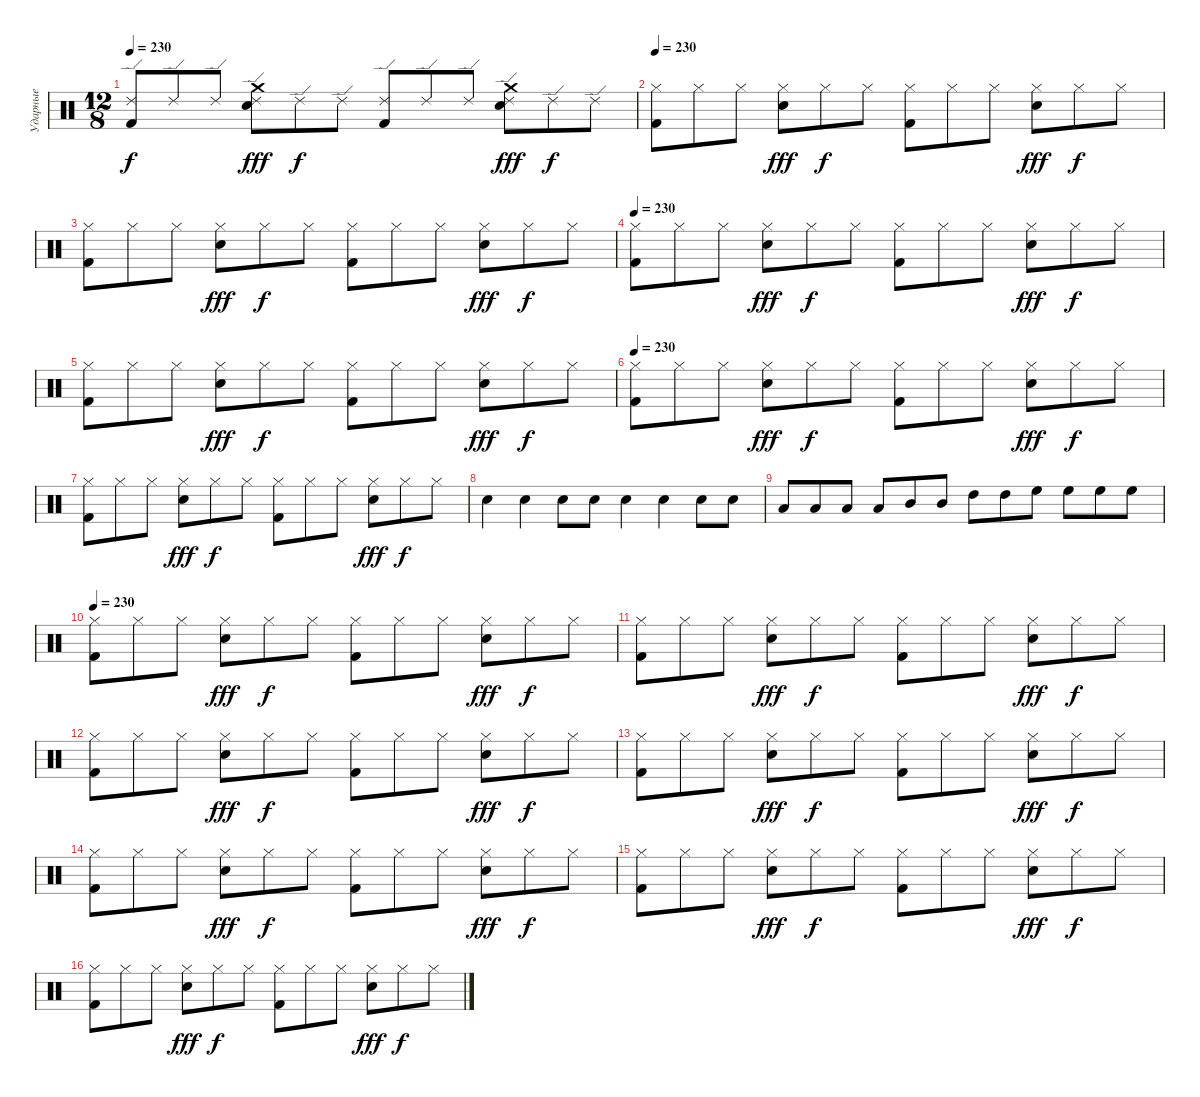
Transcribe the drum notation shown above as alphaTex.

\track ("Ударные" "Ударные") {instrument percussion}
\staff {score}
\articulation defaults
\ts (12 8)
\tempo 230
\clef neutral
\ks c
("Ride (edge) 2" "Kick (hit) 2").8{dy f} "Ride (edge) 2".8 "Ride (edge) 2".8 ("Ride (edge) 2" "Snare (hit) 2" "Crash medium (hit)").8{dy fff} "Ride (edge) 2".8{dy f} "Ride (edge) 2".8 ("Ride (edge) 2" "Kick (hit) 2").8 "Ride (edge) 2".8 "Ride (edge) 2".8 ("Ride (edge) 2" "Snare (hit) 2" "Crash medium (hit)").8{dy fff} "Ride (edge) 2".8{dy f} "Ride (edge) 2".8 |
\tempo 230
("Hi-Hat (closed)" "Kick (hit) 2").8 "Hi-Hat (closed)".8 "Hi-Hat (closed)".8 ("Hi-Hat (closed)" "Snare (hit) 2").8{dy fff} "Hi-Hat (closed)".8{dy f} "Hi-Hat (closed)".8 ("Hi-Hat (closed)" "Kick (hit) 2").8 "Hi-Hat (closed)".8 "Hi-Hat (closed)".8 ("Hi-Hat (closed)" "Snare (hit) 2").8{dy fff} "Hi-Hat (closed)".8{dy f} "Hi-Hat (closed)".8 |
("Hi-Hat (closed)" "Kick (hit) 2").8 "Hi-Hat (closed)".8 "Hi-Hat (closed)".8 ("Hi-Hat (closed)" "Snare (hit) 2").8{dy fff} "Hi-Hat (closed)".8{dy f} "Hi-Hat (closed)".8 ("Hi-Hat (closed)" "Kick (hit) 2").8 "Hi-Hat (closed)".8 "Hi-Hat (closed)".8 ("Hi-Hat (closed)" "Snare (hit) 2").8{dy fff} "Hi-Hat (closed)".8{dy f} "Hi-Hat (closed)".8 |
\tempo 230
("Hi-Hat (closed)" "Kick (hit) 2").8 "Hi-Hat (closed)".8 "Hi-Hat (closed)".8 ("Hi-Hat (closed)" "Snare (hit) 2").8{dy fff} "Hi-Hat (closed)".8{dy f} "Hi-Hat (closed)".8 ("Hi-Hat (closed)" "Kick (hit) 2").8 "Hi-Hat (closed)".8 "Hi-Hat (closed)".8 ("Hi-Hat (closed)" "Snare (hit) 2").8{dy fff} "Hi-Hat (closed)".8{dy f} "Hi-Hat (closed)".8 |
("Hi-Hat (closed)" "Kick (hit) 2").8 "Hi-Hat (closed)".8 "Hi-Hat (closed)".8 ("Hi-Hat (closed)" "Snare (hit) 2").8{dy fff} "Hi-Hat (closed)".8{dy f} "Hi-Hat (closed)".8 ("Hi-Hat (closed)" "Kick (hit) 2").8 "Hi-Hat (closed)".8 "Hi-Hat (closed)".8 ("Hi-Hat (closed)" "Snare (hit) 2").8{dy fff} "Hi-Hat (closed)".8{dy f} "Hi-Hat (closed)".8 |
\tempo 230
("Hi-Hat (closed)" "Kick (hit) 2").8 "Hi-Hat (closed)".8 "Hi-Hat (closed)".8 ("Hi-Hat (closed)" "Snare (hit) 2").8{dy fff} "Hi-Hat (closed)".8{dy f} "Hi-Hat (closed)".8 ("Hi-Hat (closed)" "Kick (hit) 2").8 "Hi-Hat (closed)".8 "Hi-Hat (closed)".8 ("Hi-Hat (closed)" "Snare (hit) 2").8{dy fff} "Hi-Hat (closed)".8{dy f} "Hi-Hat (closed)".8 |
("Hi-Hat (closed)" "Kick (hit) 2").8 "Hi-Hat (closed)".8 "Hi-Hat (closed)".8 ("Hi-Hat (closed)" "Snare (hit) 2").8{dy fff} "Hi-Hat (closed)".8{dy f} "Hi-Hat (closed)".8 ("Hi-Hat (closed)" "Kick (hit) 2").8 "Hi-Hat (closed)".8 "Hi-Hat (closed)".8 ("Hi-Hat (closed)" "Snare (hit) 2").8{dy fff} "Hi-Hat (closed)".8{dy f} "Hi-Hat (closed)".8 |
"Snare (hit) 2".4 "Snare (hit) 2".4 "Snare (hit) 2".8 "Snare (hit) 2".8 "Snare (hit) 2".4 "Snare (hit) 2".4 "Snare (hit) 2".8 "Snare (hit) 2".8 |
"Low Floor Tom (hit)".8 "Low Floor Tom (hit)".8 "Low Tom (hit)".8 "Low Tom (hit)".8 "Mid Tom (hit)".8 "Mid Tom (hit)".8 "High Tom (hit)".8 "High Tom (hit)".8 "High Floor Tom (hit)".8 "High Floor Tom (hit)".8 "High Floor Tom (hit)".8 "High Floor Tom (hit)".8 |
\tempo 230
("Hi-Hat (closed)" "Kick (hit) 2").8 "Hi-Hat (closed)".8 "Hi-Hat (closed)".8 ("Hi-Hat (closed)" "Snare (hit) 2").8{dy fff} "Hi-Hat (closed)".8{dy f} "Hi-Hat (closed)".8 ("Hi-Hat (closed)" "Kick (hit) 2").8 "Hi-Hat (closed)".8 "Hi-Hat (closed)".8 ("Hi-Hat (closed)" "Snare (hit) 2").8{dy fff} "Hi-Hat (closed)".8{dy f} "Hi-Hat (closed)".8 |
("Hi-Hat (closed)" "Kick (hit) 2").8 "Hi-Hat (closed)".8 "Hi-Hat (closed)".8 ("Hi-Hat (closed)" "Snare (hit) 2").8{dy fff} "Hi-Hat (closed)".8{dy f} "Hi-Hat (closed)".8 ("Hi-Hat (closed)" "Kick (hit) 2").8 "Hi-Hat (closed)".8 "Hi-Hat (closed)".8 ("Hi-Hat (closed)" "Snare (hit) 2").8{dy fff} "Hi-Hat (closed)".8{dy f} "Hi-Hat (closed)".8 |
("Hi-Hat (closed)" "Kick (hit) 2").8 "Hi-Hat (closed)".8 "Hi-Hat (closed)".8 ("Hi-Hat (closed)" "Snare (hit) 2").8{dy fff} "Hi-Hat (closed)".8{dy f} "Hi-Hat (closed)".8 ("Hi-Hat (closed)" "Kick (hit) 2").8 "Hi-Hat (closed)".8 "Hi-Hat (closed)".8 ("Hi-Hat (closed)" "Snare (hit) 2").8{dy fff} "Hi-Hat (closed)".8{dy f} "Hi-Hat (closed)".8 |
("Hi-Hat (closed)" "Kick (hit) 2").8 "Hi-Hat (closed)".8 "Hi-Hat (closed)".8 ("Hi-Hat (closed)" "Snare (hit) 2").8{dy fff} "Hi-Hat (closed)".8{dy f} "Hi-Hat (closed)".8 ("Hi-Hat (closed)" "Kick (hit) 2").8 "Hi-Hat (closed)".8 "Hi-Hat (closed)".8 ("Hi-Hat (closed)" "Snare (hit) 2").8{dy fff} "Hi-Hat (closed)".8{dy f} "Hi-Hat (closed)".8 |
("Hi-Hat (closed)" "Kick (hit) 2").8 "Hi-Hat (closed)".8 "Hi-Hat (closed)".8 ("Hi-Hat (closed)" "Snare (hit) 2").8{dy fff} "Hi-Hat (closed)".8{dy f} "Hi-Hat (closed)".8 ("Hi-Hat (closed)" "Kick (hit) 2").8 "Hi-Hat (closed)".8 "Hi-Hat (closed)".8 ("Hi-Hat (closed)" "Snare (hit) 2").8{dy fff} "Hi-Hat (closed)".8{dy f} "Hi-Hat (closed)".8 |
("Hi-Hat (closed)" "Kick (hit) 2").8 "Hi-Hat (closed)".8 "Hi-Hat (closed)".8 ("Hi-Hat (closed)" "Snare (hit) 2").8{dy fff} "Hi-Hat (closed)".8{dy f} "Hi-Hat (closed)".8 ("Hi-Hat (closed)" "Kick (hit) 2").8 "Hi-Hat (closed)".8 "Hi-Hat (closed)".8 ("Hi-Hat (closed)" "Snare (hit) 2").8{dy fff} "Hi-Hat (closed)".8{dy f} "Hi-Hat (closed)".8 |
("Hi-Hat (closed)" "Kick (hit) 2").8 "Hi-Hat (closed)".8 "Hi-Hat (closed)".8 ("Hi-Hat (closed)" "Snare (hit) 2").8{dy fff} "Hi-Hat (closed)".8{dy f} "Hi-Hat (closed)".8 ("Hi-Hat (closed)" "Kick (hit) 2").8 "Hi-Hat (closed)".8 "Hi-Hat (closed)".8 ("Hi-Hat (closed)" "Snare (hit) 2").8{dy fff} "Hi-Hat (closed)".8{dy f} "Hi-Hat (closed)".8
